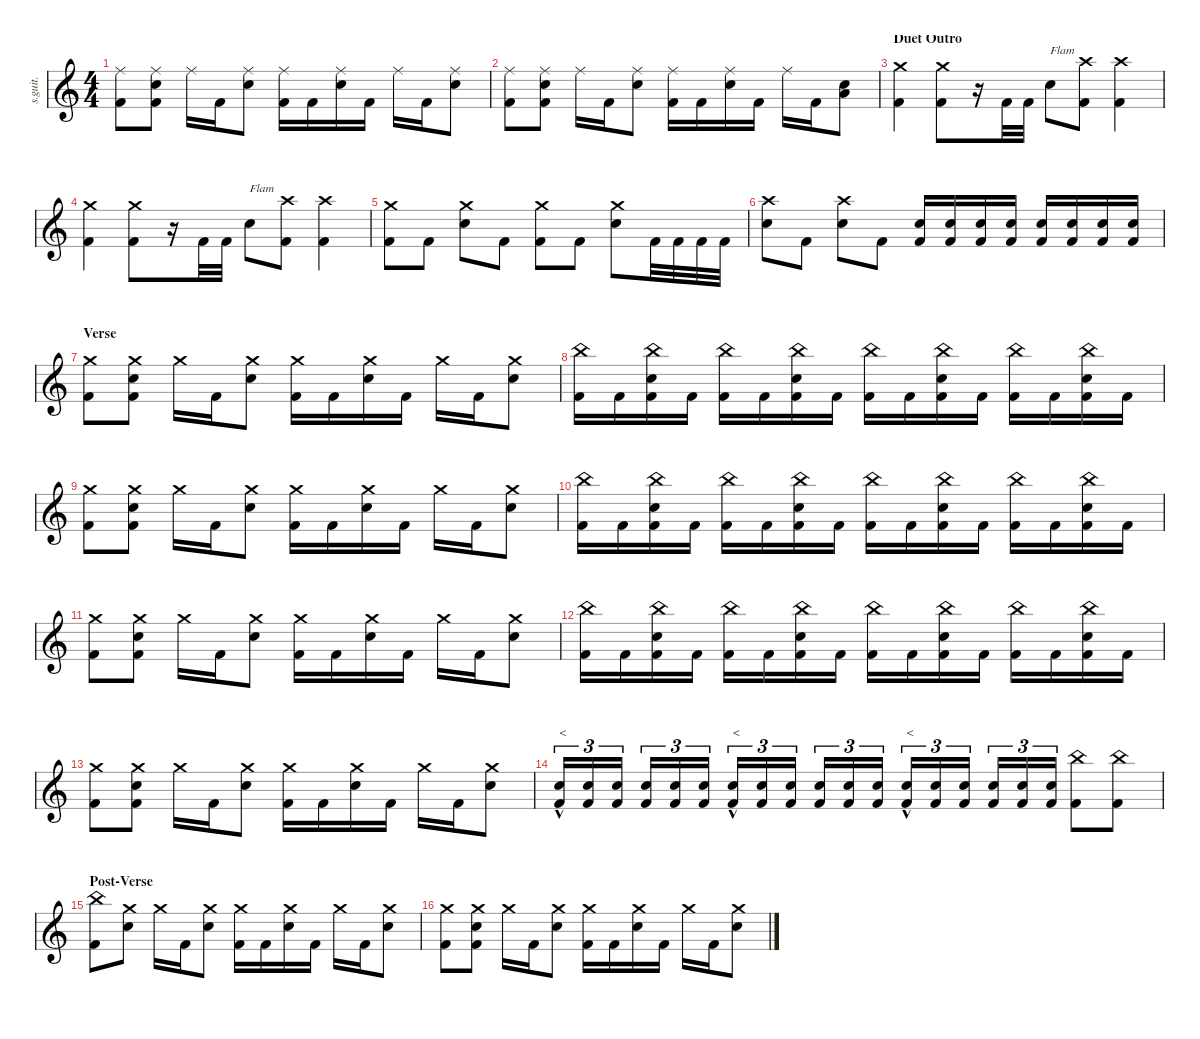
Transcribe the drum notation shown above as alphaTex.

\defaultSystemsLayout 4
\hideDynamics
\bracketExtendMode nobrackets
\track ("The Rev" "s.guit.") {instrument percussion}
\staff {score}
\articulation defaults
\ts (4 4)
\tempo (125 hide)
\clef g2
\ks c
("Ride (middle)" "Kick (hit) 2").8{lyrics (0 "") lyrics (1 "") lyrics (2 "") lyrics (3 "") lyrics (4 "") dy mp} ("Ride (middle)" "Electric Snare (hit)" "Kick (hit) 2").8{lyrics (0 "") lyrics (1 "") lyrics (2 "") lyrics (3 "") lyrics (4 "") dy f} "Ride (middle)".16{lyrics (0 "") lyrics (1 "") lyrics (2 "") lyrics (3 "") lyrics (4 "") dy mp} "Kick (hit) 2".16{lyrics (0 "") lyrics (1 "") lyrics (2 "") lyrics (3 "") lyrics (4 "") dy fff} ("Ride (middle)" "Electric Snare (hit)").8{lyrics (0 "") lyrics (1 "") lyrics (2 "") lyrics (3 "") lyrics (4 "") dy f} ("Ride (middle)" "Kick (hit) 2").16{lyrics (0 "") lyrics (1 "") lyrics (2 "") lyrics (3 "") lyrics (4 "") dy mp} "Kick (hit) 2".16{lyrics (0 "") lyrics (1 "") lyrics (2 "") lyrics (3 "") lyrics (4 "") dy fff} ("Ride (middle)" "Electric Snare (hit)").16{lyrics (0 "") lyrics (1 "") lyrics (2 "") lyrics (3 "") lyrics (4 "") dy f} "Kick (hit) 2".16{lyrics (0 "") lyrics (1 "") lyrics (2 "") lyrics (3 "") lyrics (4 "") dy fff} "Ride (middle)".16{lyrics (0 "") lyrics (1 "") lyrics (2 "") lyrics (3 "") lyrics (4 "") dy mp} "Kick (hit) 2".16{lyrics (0 "") lyrics (1 "") lyrics (2 "") lyrics (3 "") lyrics (4 "") dy fff} ("Ride (middle)" "Electric Snare (hit)").8{lyrics (0 "") lyrics (1 "") lyrics (2 "") lyrics (3 "") lyrics (4 "") dy f} |
("Ride (middle)" "Kick (hit) 2").8{lyrics (0 "") lyrics (1 "") lyrics (2 "") lyrics (3 "") lyrics (4 "") dy mp} ("Ride (middle)" "Electric Snare (hit)" "Kick (hit) 2").8{lyrics (0 "") lyrics (1 "") lyrics (2 "") lyrics (3 "") lyrics (4 "") dy f} "Ride (middle)".16{lyrics (0 "") lyrics (1 "") lyrics (2 "") lyrics (3 "") lyrics (4 "") dy mp} "Kick (hit) 2".16{lyrics (0 "") lyrics (1 "") lyrics (2 "") lyrics (3 "") lyrics (4 "") dy fff} ("Ride (middle)" "Electric Snare (hit)").8{lyrics (0 "") lyrics (1 "") lyrics (2 "") lyrics (3 "") lyrics (4 "") dy f} ("Ride (middle)" "Kick (hit) 2").16{lyrics (0 "") lyrics (1 "") lyrics (2 "") lyrics (3 "") lyrics (4 "") dy mp} "Kick (hit) 2".16{lyrics (0 "") lyrics (1 "") lyrics (2 "") lyrics (3 "") lyrics (4 "") dy fff} ("Ride (middle)" "Electric Snare (hit)").16{lyrics (0 "") lyrics (1 "") lyrics (2 "") lyrics (3 "") lyrics (4 "") dy f} "Kick (hit) 2".16{lyrics (0 "") lyrics (1 "") lyrics (2 "") lyrics (3 "") lyrics (4 "") dy fff} "Ride (middle)".16{lyrics (0 "") lyrics (1 "") lyrics (2 "") lyrics (3 "") lyrics (4 "") dy mp} "Kick (hit) 2".16{lyrics (0 "") lyrics (1 "") lyrics (2 "") lyrics (3 "") lyrics (4 "") dy fff} ("Electric Snare (hit)" "Low Floor Tom (hit)").8{lyrics (0 "") lyrics (1 "") lyrics (2 "") lyrics (3 "") lyrics (4 "") dy f} |
\section ("" "Duet Outro")
("Crash medium (hit)" "Kick (hit) 2").4{lyrics (0 "") lyrics (1 "") lyrics (2 "") lyrics (3 "") lyrics (4 "")} ("Crash medium (hit)" "Kick (hit) 2").8{lyrics (0 "") lyrics (1 "") lyrics (2 "") lyrics (3 "") lyrics (4 "")} r.16 "Kick (hit) 2".32{lyrics (0 "") lyrics (1 "") lyrics (2 "") lyrics (3 "") lyrics (4 "") dy fff} "Kick (hit) 2".32{lyrics (0 "") lyrics (1 "") lyrics (2 "") lyrics (3 "") lyrics (4 "")} "Electric Snare (hit)".8{txt "Flam" lyrics (0 "") lyrics (1 "") lyrics (2 "") lyrics (3 "") lyrics (4 "")} ("Crash high (hit)" "Kick (hit) 2").8{lyrics (0 "") lyrics (1 "") lyrics (2 "") lyrics (3 "") lyrics (4 "")} ("Crash high (hit)" "Kick (hit) 2").4{lyrics (0 "") lyrics (1 "") lyrics (2 "") lyrics (3 "") lyrics (4 "")} |
("Crash medium (hit)" "Kick (hit) 2").4{lyrics (0 "") lyrics (1 "") lyrics (2 "") lyrics (3 "") lyrics (4 "")} ("Crash medium (hit)" "Kick (hit) 2").8{lyrics (0 "") lyrics (1 "") lyrics (2 "") lyrics (3 "") lyrics (4 "")} r.16 "Kick (hit) 2".32{lyrics (0 "") lyrics (1 "") lyrics (2 "") lyrics (3 "") lyrics (4 "")} "Kick (hit) 2".32{lyrics (0 "") lyrics (1 "") lyrics (2 "") lyrics (3 "") lyrics (4 "")} "Electric Snare (hit)".8{txt "Flam" lyrics (0 "") lyrics (1 "") lyrics (2 "") lyrics (3 "") lyrics (4 "")} ("Crash high (hit)" "Kick (hit) 2").8{lyrics (0 "") lyrics (1 "") lyrics (2 "") lyrics (3 "") lyrics (4 "")} ("Crash high (hit)" "Kick (hit) 2").4{lyrics (0 "") lyrics (1 "") lyrics (2 "") lyrics (3 "") lyrics (4 "")} |
("Crash medium (hit)" "Kick (hit) 2").8{lyrics (0 "") lyrics (1 "") lyrics (2 "") lyrics (3 "") lyrics (4 "")} "Kick (hit) 2".8{lyrics (0 "") lyrics (1 "") lyrics (2 "") lyrics (3 "") lyrics (4 "")} ("Crash medium (hit)" "Electric Snare (hit)").8{lyrics (0 "") lyrics (1 "") lyrics (2 "") lyrics (3 "") lyrics (4 "") dy f} "Kick (hit) 2".8{lyrics (0 "") lyrics (1 "") lyrics (2 "") lyrics (3 "") lyrics (4 "") dy fff} ("Crash medium (hit)" "Kick (hit) 2").8{lyrics (0 "") lyrics (1 "") lyrics (2 "") lyrics (3 "") lyrics (4 "")} "Kick (hit) 2".8{lyrics (0 "") lyrics (1 "") lyrics (2 "") lyrics (3 "") lyrics (4 "")} ("Crash medium (hit)" "Electric Snare (hit)").8{lyrics (0 "") lyrics (1 "") lyrics (2 "") lyrics (3 "") lyrics (4 "") dy f} "Kick (hit) 2".32{lyrics (0 "") lyrics (1 "") lyrics (2 "") lyrics (3 "") lyrics (4 "") dy fff} "Kick (hit) 2".32{lyrics (0 "") lyrics (1 "") lyrics (2 "") lyrics (3 "") lyrics (4 "")} "Kick (hit) 2".32{lyrics (0 "") lyrics (1 "") lyrics (2 "") lyrics (3 "") lyrics (4 "")} "Kick (hit) 2".32{lyrics (0 "") lyrics (1 "") lyrics (2 "") lyrics (3 "") lyrics (4 "")} |
("Crash high (hit)" "Electric Snare (hit)").8{lyrics (0 "") lyrics (1 "") lyrics (2 "") lyrics (3 "") lyrics (4 "") dy f} "Kick (hit) 2".8{lyrics (0 "") lyrics (1 "") lyrics (2 "") lyrics (3 "") lyrics (4 "") dy fff} ("Crash high (hit)" "Electric Snare (hit)").8{lyrics (0 "") lyrics (1 "") lyrics (2 "") lyrics (3 "") lyrics (4 "") dy f} "Kick (hit) 2".8{lyrics (0 "") lyrics (1 "") lyrics (2 "") lyrics (3 "") lyrics (4 "") dy fff} ("Electric Snare (hit)" "Kick (hit) 2").16{lyrics (0 "") lyrics (1 "") lyrics (2 "") lyrics (3 "") lyrics (4 "")} ("Electric Snare (hit)" "Kick (hit) 2").16{lyrics (0 "") lyrics (1 "") lyrics (2 "") lyrics (3 "") lyrics (4 "")} ("Electric Snare (hit)" "Kick (hit) 2").16{lyrics (0 "") lyrics (1 "") lyrics (2 "") lyrics (3 "") lyrics (4 "")} ("Electric Snare (hit)" "Kick (hit) 2").16{lyrics (0 "") lyrics (1 "") lyrics (2 "") lyrics (3 "") lyrics (4 "")} ("Electric Snare (hit)" "Kick (hit) 2").16{lyrics (0 "") lyrics (1 "") lyrics (2 "") lyrics (3 "") lyrics (4 "")} ("Electric Snare (hit)" "Kick (hit) 2").16{lyrics (0 "") lyrics (1 "") lyrics (2 "") lyrics (3 "") lyrics (4 "")} ("Electric Snare (hit)" "Kick (hit) 2").16{lyrics (0 "") lyrics (1 "") lyrics (2 "") lyrics (3 "") lyrics (4 "")} ("Electric Snare (hit)" "Kick (hit) 2").16{lyrics (0 "") lyrics (1 "") lyrics (2 "") lyrics (3 "") lyrics (4 "")} |
\section ("" "Verse")
("Crash medium (hit)" "Kick (hit) 2").8{lyrics (0 "") lyrics (1 "") lyrics (2 "") lyrics (3 "") lyrics (4 "")} ("Crash medium (hit)" "Electric Snare (hit)" "Kick (hit) 2").8{lyrics (0 "") lyrics (1 "") lyrics (2 "") lyrics (3 "") lyrics (4 "")} "Crash medium (hit)".16{lyrics (0 "") lyrics (1 "") lyrics (2 "") lyrics (3 "") lyrics (4 "") dy mp} "Kick (hit) 2".16{lyrics (0 "") lyrics (1 "") lyrics (2 "") lyrics (3 "") lyrics (4 "") dy fff} ("Crash medium (hit)" "Electric Snare (hit)").8{lyrics (0 "") lyrics (1 "") lyrics (2 "") lyrics (3 "") lyrics (4 "") dy f} ("Crash medium (hit)" "Kick (hit) 2").16{lyrics (0 "") lyrics (1 "") lyrics (2 "") lyrics (3 "") lyrics (4 "") dy mp} "Kick (hit) 2".16{lyrics (0 "") lyrics (1 "") lyrics (2 "") lyrics (3 "") lyrics (4 "") dy fff} ("Crash medium (hit)" "Electric Snare (hit)").16{lyrics (0 "") lyrics (1 "") lyrics (2 "") lyrics (3 "") lyrics (4 "") dy f} "Kick (hit) 2".16{lyrics (0 "") lyrics (1 "") lyrics (2 "") lyrics (3 "") lyrics (4 "") dy fff} "Crash medium (hit)".16{lyrics (0 "") lyrics (1 "") lyrics (2 "") lyrics (3 "") lyrics (4 "") dy mp} "Kick (hit) 2".16{lyrics (0 "") lyrics (1 "") lyrics (2 "") lyrics (3 "") lyrics (4 "") dy fff} ("Crash medium (hit)" "Electric Snare (hit)").8{lyrics (0 "") lyrics (1 "") lyrics (2 "") lyrics (3 "") lyrics (4 "") dy f} |
("China (hit)" "Kick (hit) 2").16{lyrics (0 "") lyrics (1 "") lyrics (2 "") lyrics (3 "") lyrics (4 "")} "Kick (hit) 2".16{lyrics (0 "") lyrics (1 "") lyrics (2 "") lyrics (3 "") lyrics (4 "") dy fff} ("China (hit)" "Electric Snare (hit)" "Kick (hit) 2").16{lyrics (0 "") lyrics (1 "") lyrics (2 "") lyrics (3 "") lyrics (4 "") dy f} "Kick (hit) 2".16{lyrics (0 "") lyrics (1 "") lyrics (2 "") lyrics (3 "") lyrics (4 "") dy fff} ("China (hit)" "Kick (hit) 2").16{lyrics (0 "") lyrics (1 "") lyrics (2 "") lyrics (3 "") lyrics (4 "")} "Kick (hit) 2".16{lyrics (0 "") lyrics (1 "") lyrics (2 "") lyrics (3 "") lyrics (4 "")} ("China (hit)" "Electric Snare (hit)" "Kick (hit) 2").16{lyrics (0 "") lyrics (1 "") lyrics (2 "") lyrics (3 "") lyrics (4 "") dy f} "Kick (hit) 2".16{lyrics (0 "") lyrics (1 "") lyrics (2 "") lyrics (3 "") lyrics (4 "") dy fff} ("China (hit)" "Kick (hit) 2").16{lyrics (0 "") lyrics (1 "") lyrics (2 "") lyrics (3 "") lyrics (4 "")} "Kick (hit) 2".16{lyrics (0 "") lyrics (1 "") lyrics (2 "") lyrics (3 "") lyrics (4 "")} ("China (hit)" "Electric Snare (hit)" "Kick (hit) 2").16{lyrics (0 "") lyrics (1 "") lyrics (2 "") lyrics (3 "") lyrics (4 "") dy f} "Kick (hit) 2".16{lyrics (0 "") lyrics (1 "") lyrics (2 "") lyrics (3 "") lyrics (4 "") dy fff} ("China (hit)" "Kick (hit) 2").16{lyrics (0 "") lyrics (1 "") lyrics (2 "") lyrics (3 "") lyrics (4 "")} "Kick (hit) 2".16{lyrics (0 "") lyrics (1 "") lyrics (2 "") lyrics (3 "") lyrics (4 "")} ("China (hit)" "Electric Snare (hit)" "Kick (hit) 2").16{lyrics (0 "") lyrics (1 "") lyrics (2 "") lyrics (3 "") lyrics (4 "") dy f} "Kick (hit) 2".16{lyrics (0 "") lyrics (1 "") lyrics (2 "") lyrics (3 "") lyrics (4 "") dy fff} |
("Crash medium (hit)" "Kick (hit) 2").8{lyrics (0 "") lyrics (1 "") lyrics (2 "") lyrics (3 "") lyrics (4 "")} ("Crash medium (hit)" "Electric Snare (hit)" "Kick (hit) 2").8{lyrics (0 "") lyrics (1 "") lyrics (2 "") lyrics (3 "") lyrics (4 "")} "Crash medium (hit)".16{lyrics (0 "") lyrics (1 "") lyrics (2 "") lyrics (3 "") lyrics (4 "") dy mp} "Kick (hit) 2".16{lyrics (0 "") lyrics (1 "") lyrics (2 "") lyrics (3 "") lyrics (4 "") dy fff} ("Crash medium (hit)" "Electric Snare (hit)").8{lyrics (0 "") lyrics (1 "") lyrics (2 "") lyrics (3 "") lyrics (4 "") dy f} ("Crash medium (hit)" "Kick (hit) 2").16{lyrics (0 "") lyrics (1 "") lyrics (2 "") lyrics (3 "") lyrics (4 "") dy mp} "Kick (hit) 2".16{lyrics (0 "") lyrics (1 "") lyrics (2 "") lyrics (3 "") lyrics (4 "") dy fff} ("Crash medium (hit)" "Electric Snare (hit)").16{lyrics (0 "") lyrics (1 "") lyrics (2 "") lyrics (3 "") lyrics (4 "") dy f} "Kick (hit) 2".16{lyrics (0 "") lyrics (1 "") lyrics (2 "") lyrics (3 "") lyrics (4 "") dy fff} "Crash medium (hit)".16{lyrics (0 "") lyrics (1 "") lyrics (2 "") lyrics (3 "") lyrics (4 "") dy mp} "Kick (hit) 2".16{lyrics (0 "") lyrics (1 "") lyrics (2 "") lyrics (3 "") lyrics (4 "") dy fff} ("Crash medium (hit)" "Electric Snare (hit)").8{lyrics (0 "") lyrics (1 "") lyrics (2 "") lyrics (3 "") lyrics (4 "") dy f} |
("China (hit)" "Kick (hit) 2").16{lyrics (0 "") lyrics (1 "") lyrics (2 "") lyrics (3 "") lyrics (4 "")} "Kick (hit) 2".16{lyrics (0 "") lyrics (1 "") lyrics (2 "") lyrics (3 "") lyrics (4 "") dy fff} ("China (hit)" "Electric Snare (hit)" "Kick (hit) 2").16{lyrics (0 "") lyrics (1 "") lyrics (2 "") lyrics (3 "") lyrics (4 "") dy f} "Kick (hit) 2".16{lyrics (0 "") lyrics (1 "") lyrics (2 "") lyrics (3 "") lyrics (4 "") dy fff} ("China (hit)" "Kick (hit) 2").16{lyrics (0 "") lyrics (1 "") lyrics (2 "") lyrics (3 "") lyrics (4 "")} "Kick (hit) 2".16{lyrics (0 "") lyrics (1 "") lyrics (2 "") lyrics (3 "") lyrics (4 "")} ("China (hit)" "Electric Snare (hit)" "Kick (hit) 2").16{lyrics (0 "") lyrics (1 "") lyrics (2 "") lyrics (3 "") lyrics (4 "") dy f} "Kick (hit) 2".16{lyrics (0 "") lyrics (1 "") lyrics (2 "") lyrics (3 "") lyrics (4 "") dy fff} ("China (hit)" "Kick (hit) 2").16{lyrics (0 "") lyrics (1 "") lyrics (2 "") lyrics (3 "") lyrics (4 "")} "Kick (hit) 2".16{lyrics (0 "") lyrics (1 "") lyrics (2 "") lyrics (3 "") lyrics (4 "")} ("China (hit)" "Electric Snare (hit)" "Kick (hit) 2").16{lyrics (0 "") lyrics (1 "") lyrics (2 "") lyrics (3 "") lyrics (4 "") dy f} "Kick (hit) 2".16{lyrics (0 "") lyrics (1 "") lyrics (2 "") lyrics (3 "") lyrics (4 "") dy fff} ("China (hit)" "Kick (hit) 2").16{lyrics (0 "") lyrics (1 "") lyrics (2 "") lyrics (3 "") lyrics (4 "")} "Kick (hit) 2".16{lyrics (0 "") lyrics (1 "") lyrics (2 "") lyrics (3 "") lyrics (4 "")} ("China (hit)" "Electric Snare (hit)" "Kick (hit) 2").16{lyrics (0 "") lyrics (1 "") lyrics (2 "") lyrics (3 "") lyrics (4 "") dy f} "Kick (hit) 2".16{lyrics (0 "") lyrics (1 "") lyrics (2 "") lyrics (3 "") lyrics (4 "") dy fff} |
("Crash medium (hit)" "Kick (hit) 2").8{lyrics (0 "") lyrics (1 "") lyrics (2 "") lyrics (3 "") lyrics (4 "")} ("Crash medium (hit)" "Electric Snare (hit)" "Kick (hit) 2").8{lyrics (0 "") lyrics (1 "") lyrics (2 "") lyrics (3 "") lyrics (4 "")} "Crash medium (hit)".16{lyrics (0 "") lyrics (1 "") lyrics (2 "") lyrics (3 "") lyrics (4 "") dy mp} "Kick (hit) 2".16{lyrics (0 "") lyrics (1 "") lyrics (2 "") lyrics (3 "") lyrics (4 "") dy fff} ("Crash medium (hit)" "Electric Snare (hit)").8{lyrics (0 "") lyrics (1 "") lyrics (2 "") lyrics (3 "") lyrics (4 "") dy f} ("Crash medium (hit)" "Kick (hit) 2").16{lyrics (0 "") lyrics (1 "") lyrics (2 "") lyrics (3 "") lyrics (4 "") dy mp} "Kick (hit) 2".16{lyrics (0 "") lyrics (1 "") lyrics (2 "") lyrics (3 "") lyrics (4 "") dy fff} ("Crash medium (hit)" "Electric Snare (hit)").16{lyrics (0 "") lyrics (1 "") lyrics (2 "") lyrics (3 "") lyrics (4 "") dy f} "Kick (hit) 2".16{lyrics (0 "") lyrics (1 "") lyrics (2 "") lyrics (3 "") lyrics (4 "") dy fff} "Crash medium (hit)".16{lyrics (0 "") lyrics (1 "") lyrics (2 "") lyrics (3 "") lyrics (4 "") dy mp} "Kick (hit) 2".16{lyrics (0 "") lyrics (1 "") lyrics (2 "") lyrics (3 "") lyrics (4 "") dy fff} ("Crash medium (hit)" "Electric Snare (hit)").8{lyrics (0 "") lyrics (1 "") lyrics (2 "") lyrics (3 "") lyrics (4 "") dy f} |
("China (hit)" "Kick (hit) 2").16{lyrics (0 "") lyrics (1 "") lyrics (2 "") lyrics (3 "") lyrics (4 "")} "Kick (hit) 2".16{lyrics (0 "") lyrics (1 "") lyrics (2 "") lyrics (3 "") lyrics (4 "") dy fff} ("China (hit)" "Electric Snare (hit)" "Kick (hit) 2").16{lyrics (0 "") lyrics (1 "") lyrics (2 "") lyrics (3 "") lyrics (4 "") dy f} "Kick (hit) 2".16{lyrics (0 "") lyrics (1 "") lyrics (2 "") lyrics (3 "") lyrics (4 "") dy fff} ("China (hit)" "Kick (hit) 2").16{lyrics (0 "") lyrics (1 "") lyrics (2 "") lyrics (3 "") lyrics (4 "")} "Kick (hit) 2".16{lyrics (0 "") lyrics (1 "") lyrics (2 "") lyrics (3 "") lyrics (4 "")} ("China (hit)" "Electric Snare (hit)" "Kick (hit) 2").16{lyrics (0 "") lyrics (1 "") lyrics (2 "") lyrics (3 "") lyrics (4 "") dy f} "Kick (hit) 2".16{lyrics (0 "") lyrics (1 "") lyrics (2 "") lyrics (3 "") lyrics (4 "") dy fff} ("China (hit)" "Kick (hit) 2").16{lyrics (0 "") lyrics (1 "") lyrics (2 "") lyrics (3 "") lyrics (4 "")} "Kick (hit) 2".16{lyrics (0 "") lyrics (1 "") lyrics (2 "") lyrics (3 "") lyrics (4 "")} ("China (hit)" "Electric Snare (hit)" "Kick (hit) 2").16{lyrics (0 "") lyrics (1 "") lyrics (2 "") lyrics (3 "") lyrics (4 "") dy f} "Kick (hit) 2".16{lyrics (0 "") lyrics (1 "") lyrics (2 "") lyrics (3 "") lyrics (4 "") dy fff} ("China (hit)" "Kick (hit) 2").16{lyrics (0 "") lyrics (1 "") lyrics (2 "") lyrics (3 "") lyrics (4 "")} "Kick (hit) 2".16{lyrics (0 "") lyrics (1 "") lyrics (2 "") lyrics (3 "") lyrics (4 "")} ("China (hit)" "Electric Snare (hit)" "Kick (hit) 2").16{lyrics (0 "") lyrics (1 "") lyrics (2 "") lyrics (3 "") lyrics (4 "") dy f} "Kick (hit) 2".16{lyrics (0 "") lyrics (1 "") lyrics (2 "") lyrics (3 "") lyrics (4 "") dy fff} |
("Crash medium (hit)" "Kick (hit) 2").8{lyrics (0 "") lyrics (1 "") lyrics (2 "") lyrics (3 "") lyrics (4 "")} ("Crash medium (hit)" "Electric Snare (hit)" "Kick (hit) 2").8{lyrics (0 "") lyrics (1 "") lyrics (2 "") lyrics (3 "") lyrics (4 "")} "Crash medium (hit)".16{lyrics (0 "") lyrics (1 "") lyrics (2 "") lyrics (3 "") lyrics (4 "") dy mp} "Kick (hit) 2".16{lyrics (0 "") lyrics (1 "") lyrics (2 "") lyrics (3 "") lyrics (4 "") dy fff} ("Crash medium (hit)" "Electric Snare (hit)").8{lyrics (0 "") lyrics (1 "") lyrics (2 "") lyrics (3 "") lyrics (4 "") dy f} ("Crash medium (hit)" "Kick (hit) 2").16{lyrics (0 "") lyrics (1 "") lyrics (2 "") lyrics (3 "") lyrics (4 "") dy mp} "Kick (hit) 2".16{lyrics (0 "") lyrics (1 "") lyrics (2 "") lyrics (3 "") lyrics (4 "") dy fff} ("Crash medium (hit)" "Electric Snare (hit)").16{lyrics (0 "") lyrics (1 "") lyrics (2 "") lyrics (3 "") lyrics (4 "") dy f} "Kick (hit) 2".16{lyrics (0 "") lyrics (1 "") lyrics (2 "") lyrics (3 "") lyrics (4 "") dy fff} "Crash medium (hit)".16{lyrics (0 "") lyrics (1 "") lyrics (2 "") lyrics (3 "") lyrics (4 "") dy mp} "Kick (hit) 2".16{lyrics (0 "") lyrics (1 "") lyrics (2 "") lyrics (3 "") lyrics (4 "") dy fff} ("Crash medium (hit)" "Electric Snare (hit)").8{lyrics (0 "") lyrics (1 "") lyrics (2 "") lyrics (3 "") lyrics (4 "") dy f} |
("Electric Snare (hit)"{hac} "Kick (hit) 2").16{tu (3 2) txt "<" lyrics (0 "") lyrics (1 "") lyrics (2 "") lyrics (3 "") lyrics (4 "") dy fff} ("Electric Snare (hit)" "Kick (hit) 2").16{tu (3 2) lyrics (0 "") lyrics (1 "") lyrics (2 "") lyrics (3 "") lyrics (4 "")} ("Electric Snare (hit)" "Kick (hit) 2").16{tu (3 2) lyrics (0 "") lyrics (1 "") lyrics (2 "") lyrics (3 "") lyrics (4 "")} ("Electric Snare (hit)" "Kick (hit) 2").16{tu (3 2) lyrics (0 "") lyrics (1 "") lyrics (2 "") lyrics (3 "") lyrics (4 "")} ("Electric Snare (hit)" "Kick (hit) 2").16{tu (3 2) lyrics (0 "") lyrics (1 "") lyrics (2 "") lyrics (3 "") lyrics (4 "")} ("Electric Snare (hit)" "Kick (hit) 2").16{tu (3 2) lyrics (0 "") lyrics (1 "") lyrics (2 "") lyrics (3 "") lyrics (4 "")} ("Electric Snare (hit)"{hac} "Kick (hit) 2").16{tu (3 2) txt "<" lyrics (0 "") lyrics (1 "") lyrics (2 "") lyrics (3 "") lyrics (4 "")} ("Electric Snare (hit)" "Kick (hit) 2").16{tu (3 2) lyrics (0 "") lyrics (1 "") lyrics (2 "") lyrics (3 "") lyrics (4 "")} ("Electric Snare (hit)" "Kick (hit) 2").16{tu (3 2) lyrics (0 "") lyrics (1 "") lyrics (2 "") lyrics (3 "") lyrics (4 "")} ("Electric Snare (hit)" "Kick (hit) 2").16{tu (3 2) lyrics (0 "") lyrics (1 "") lyrics (2 "") lyrics (3 "") lyrics (4 "")} ("Electric Snare (hit)" "Kick (hit) 2").16{tu (3 2) lyrics (0 "") lyrics (1 "") lyrics (2 "") lyrics (3 "") lyrics (4 "")} ("Electric Snare (hit)" "Kick (hit) 2").16{tu (3 2) lyrics (0 "") lyrics (1 "") lyrics (2 "") lyrics (3 "") lyrics (4 "")} ("Electric Snare (hit)"{hac} "Kick (hit) 2").16{tu (3 2) txt "<" lyrics (0 "") lyrics (1 "") lyrics (2 "") lyrics (3 "") lyrics (4 "")} ("Electric Snare (hit)" "Kick (hit) 2").16{tu (3 2) lyrics (0 "") lyrics (1 "") lyrics (2 "") lyrics (3 "") lyrics (4 "")} ("Electric Snare (hit)" "Kick (hit) 2").16{tu (3 2) lyrics (0 "") lyrics (1 "") lyrics (2 "") lyrics (3 "") lyrics (4 "")} ("Electric Snare (hit)" "Kick (hit) 2").16{tu (3 2) lyrics (0 "") lyrics (1 "") lyrics (2 "") lyrics (3 "") lyrics (4 "")} ("Electric Snare (hit)" "Kick (hit) 2").16{tu (3 2) lyrics (0 "") lyrics (1 "") lyrics (2 "") lyrics (3 "") lyrics (4 "")} ("Electric Snare (hit)" "Kick (hit) 2").16{tu (3 2) lyrics (0 "") lyrics (1 "") lyrics (2 "") lyrics (3 "") lyrics (4 "")} ("China (hit)" "Kick (hit) 2").8{lyrics (0 "") lyrics (1 "") lyrics (2 "") lyrics (3 "") lyrics (4 "")} ("China (hit)" "Kick (hit) 2").8{lyrics (0 "") lyrics (1 "") lyrics (2 "") lyrics (3 "") lyrics (4 "")} |
\section ("" "Post-Verse")
("China (hit)" "Kick (hit) 2").8{lyrics (0 "") lyrics (1 "") lyrics (2 "") lyrics (3 "") lyrics (4 "")} ("Crash medium (hit)" "Electric Snare (hit)").8{lyrics (0 "") lyrics (1 "") lyrics (2 "") lyrics (3 "") lyrics (4 "") dy f} "Crash medium (hit)".16{lyrics (0 "") lyrics (1 "") lyrics (2 "") lyrics (3 "") lyrics (4 "") dy mp} "Kick (hit) 2".16{lyrics (0 "") lyrics (1 "") lyrics (2 "") lyrics (3 "") lyrics (4 "") dy fff} ("Crash medium (hit)" "Electric Snare (hit)").8{lyrics (0 "") lyrics (1 "") lyrics (2 "") lyrics (3 "") lyrics (4 "") dy f} ("Crash medium (hit)" "Kick (hit) 2").16{lyrics (0 "") lyrics (1 "") lyrics (2 "") lyrics (3 "") lyrics (4 "") dy mp} "Kick (hit) 2".16{lyrics (0 "") lyrics (1 "") lyrics (2 "") lyrics (3 "") lyrics (4 "") dy fff} ("Crash medium (hit)" "Electric Snare (hit)").16{lyrics (0 "") lyrics (1 "") lyrics (2 "") lyrics (3 "") lyrics (4 "") dy f} "Kick (hit) 2".16{lyrics (0 "") lyrics (1 "") lyrics (2 "") lyrics (3 "") lyrics (4 "") dy fff} "Crash medium (hit)".16{lyrics (0 "") lyrics (1 "") lyrics (2 "") lyrics (3 "") lyrics (4 "") dy mp} "Kick (hit) 2".16{lyrics (0 "") lyrics (1 "") lyrics (2 "") lyrics (3 "") lyrics (4 "") dy fff} ("Crash medium (hit)" "Electric Snare (hit)").8{lyrics (0 "") lyrics (1 "") lyrics (2 "") lyrics (3 "") lyrics (4 "") dy f} |
("Crash medium (hit)" "Kick (hit) 2").8{lyrics (0 "") lyrics (1 "") lyrics (2 "") lyrics (3 "") lyrics (4 "") dy mp} ("Crash medium (hit)" "Electric Snare (hit)" "Kick (hit) 2").8{lyrics (0 "") lyrics (1 "") lyrics (2 "") lyrics (3 "") lyrics (4 "")} "Crash medium (hit)".16{lyrics (0 "") lyrics (1 "") lyrics (2 "") lyrics (3 "") lyrics (4 "")} "Kick (hit) 2".16{lyrics (0 "") lyrics (1 "") lyrics (2 "") lyrics (3 "") lyrics (4 "") dy fff} ("Crash medium (hit)" "Electric Snare (hit)").8{lyrics (0 "") lyrics (1 "") lyrics (2 "") lyrics (3 "") lyrics (4 "") dy f} ("Crash medium (hit)" "Kick (hit) 2").16{lyrics (0 "") lyrics (1 "") lyrics (2 "") lyrics (3 "") lyrics (4 "") dy mp} "Kick (hit) 2".16{lyrics (0 "") lyrics (1 "") lyrics (2 "") lyrics (3 "") lyrics (4 "") dy fff} ("Crash medium (hit)" "Electric Snare (hit)").16{lyrics (0 "") lyrics (1 "") lyrics (2 "") lyrics (3 "") lyrics (4 "") dy f} "Kick (hit) 2".16{lyrics (0 "") lyrics (1 "") lyrics (2 "") lyrics (3 "") lyrics (4 "") dy fff} "Crash medium (hit)".16{lyrics (0 "") lyrics (1 "") lyrics (2 "") lyrics (3 "") lyrics (4 "") dy mp} "Kick (hit) 2".16{lyrics (0 "") lyrics (1 "") lyrics (2 "") lyrics (3 "") lyrics (4 "") dy fff} ("Crash medium (hit)" "Electric Snare (hit)").8{lyrics (0 "") lyrics (1 "") lyrics (2 "") lyrics (3 "") lyrics (4 "") dy f}
